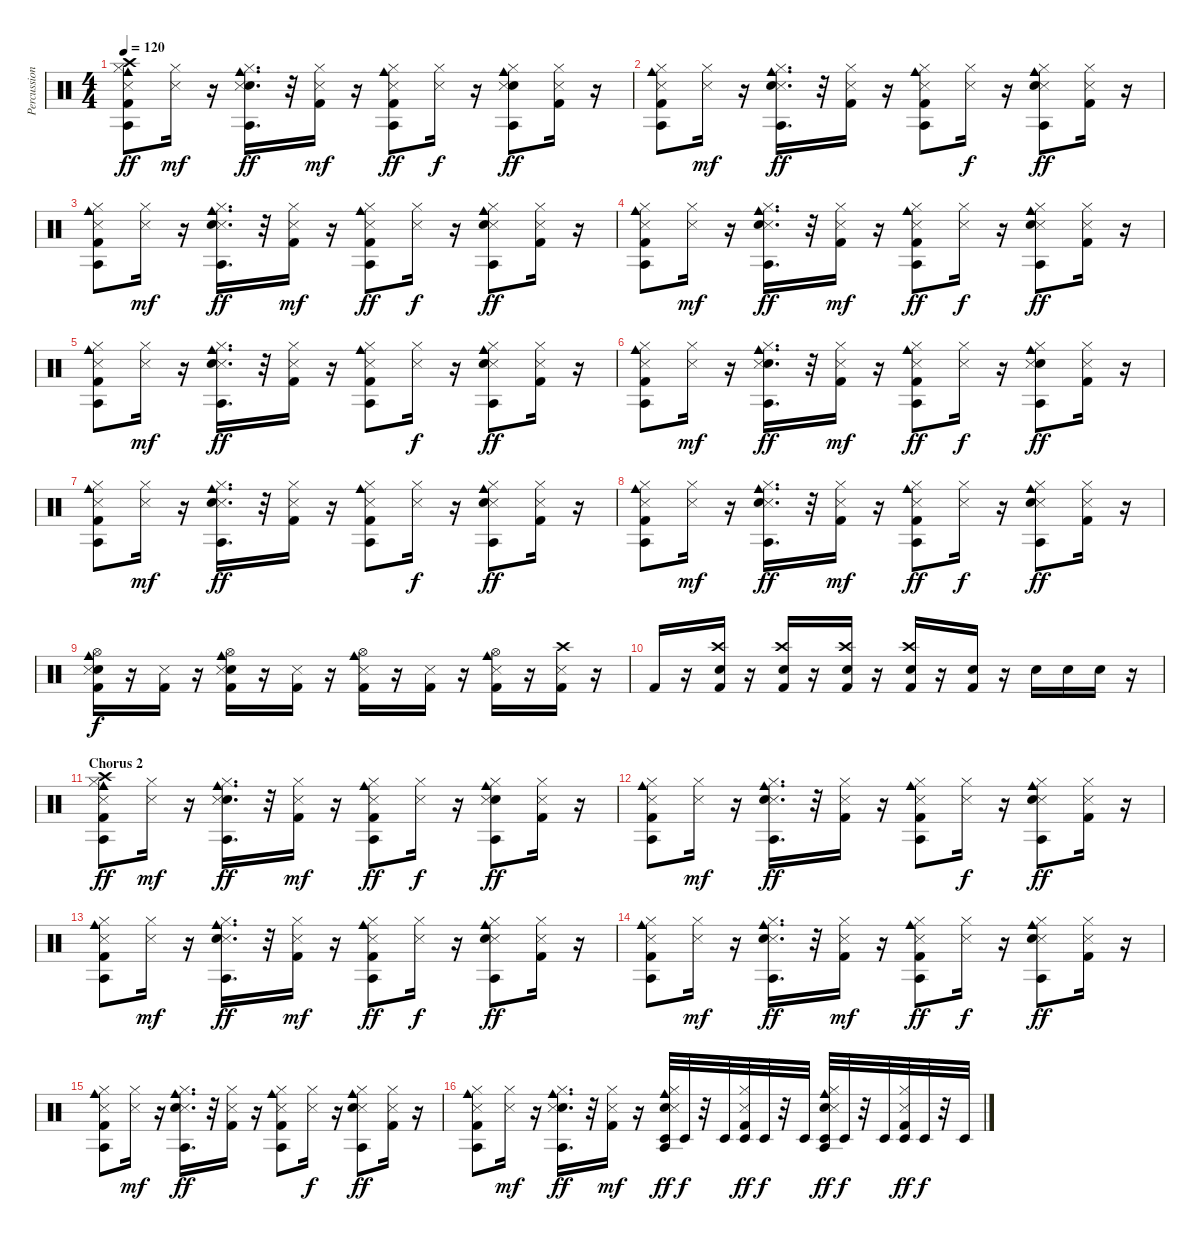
\track ("Percussion" "Percussion") {instrument percussion}
\staff {score}
\articulation defaults
\ts (4 4)
\tempo 120
\clef neutral
\ks c
("Kick (hit) 2" "Hi-Hat (closed)" "Agogo tow (hit)" "Crash high (hit)" "Cowbell medium (hit)" "Snare (side stick) 3").8{dy ff} ("Hi-Hat (closed)" "Snare (side stick) 3").16{dy mf} r.16 ("Snare (hit) 2" "Hi-Hat (closed)" "Agogo tow (hit)" "Cowbell medium (hit)" "Snare (side stick) 3").16{d dy ff} r.32 ("Kick (hit) 2" "Hi-Hat (closed)" "Snare (side stick) 3").16{dy mf} r.16 ("Kick (hit) 2" "Hi-Hat (closed)" "Agogo tow (hit)" "Cowbell medium (hit)" "Snare (side stick) 3").8{dy ff} ("Hi-Hat (closed)" "Snare (side stick) 3").16{dy f} r.16 ("Snare (hit) 2" "Hi-Hat (closed)" "Agogo tow (hit)" "Cowbell medium (hit)" "Snare (side stick) 3").8{dy ff} ("Kick (hit) 2" "Hi-Hat (closed)" "Snare (side stick) 3").16 r.16 |
("Cowbell medium (hit)" "Snare (side stick) 3" "Hi-Hat (closed)" "Agogo tow (hit)" "Kick (hit) 2").8 ("Snare (side stick) 3" "Hi-Hat (closed)").16{dy mf} r.16 ("Cowbell medium (hit)" "Snare (side stick) 3" "Hi-Hat (closed)" "Agogo tow (hit)" "Snare (hit) 2").16{d dy ff} r.32 ("Snare (side stick) 3" "Hi-Hat (closed)" "Kick (hit) 2").16 r.16 ("Cowbell medium (hit)" "Snare (side stick) 3" "Hi-Hat (closed)" "Agogo tow (hit)" "Kick (hit) 2").8 ("Snare (side stick) 3" "Hi-Hat (closed)").16{dy f} r.16 ("Cowbell medium (hit)" "Snare (side stick) 3" "Hi-Hat (closed)" "Agogo tow (hit)" "Snare (hit) 2").8{dy ff} ("Snare (side stick) 3" "Hi-Hat (closed)" "Kick (hit) 2").16 r.16 |
("Snare (side stick) 3" "Agogo tow (hit)" "Kick (hit) 2" "Cowbell medium (hit)" "Hi-Hat (closed)").8 ("Snare (side stick) 3" "Hi-Hat (closed)").16{dy mf} r.16 ("Snare (side stick) 3" "Agogo tow (hit)" "Snare (hit) 2" "Cowbell medium (hit)" "Hi-Hat (closed)").16{d dy ff} r.32 ("Snare (side stick) 3" "Kick (hit) 2" "Hi-Hat (closed)").16{dy mf} r.16 ("Snare (side stick) 3" "Agogo tow (hit)" "Kick (hit) 2" "Cowbell medium (hit)" "Hi-Hat (closed)").8{dy ff} ("Snare (side stick) 3" "Hi-Hat (closed)").16{dy f} r.16 ("Snare (side stick) 3" "Agogo tow (hit)" "Snare (hit) 2" "Cowbell medium (hit)" "Hi-Hat (closed)").8{dy ff} ("Snare (side stick) 3" "Kick (hit) 2" "Hi-Hat (closed)").16 r.16 |
("Cowbell medium (hit)" "Agogo tow (hit)" "Snare (side stick) 3" "Kick (hit) 2" "Hi-Hat (closed)").8 ("Snare (side stick) 3" "Hi-Hat (closed)").16{dy mf} r.16 ("Cowbell medium (hit)" "Agogo tow (hit)" "Snare (side stick) 3" "Snare (hit) 2" "Hi-Hat (closed)").16{d dy ff} r.32 ("Snare (side stick) 3" "Kick (hit) 2" "Hi-Hat (closed)").16{dy mf} r.16 ("Cowbell medium (hit)" "Agogo tow (hit)" "Snare (side stick) 3" "Kick (hit) 2" "Hi-Hat (closed)").8{dy ff} ("Snare (side stick) 3" "Hi-Hat (closed)").16{dy f} r.16 ("Cowbell medium (hit)" "Agogo tow (hit)" "Snare (side stick) 3" "Snare (hit) 2" "Hi-Hat (closed)").8{dy ff} ("Snare (side stick) 3" "Kick (hit) 2" "Hi-Hat (closed)").16 r.16 |
("Hi-Hat (closed)" "Cowbell medium (hit)" "Snare (side stick) 3" "Agogo tow (hit)" "Kick (hit) 2").8 ("Hi-Hat (closed)" "Snare (side stick) 3").16{dy mf} r.16 ("Hi-Hat (closed)" "Cowbell medium (hit)" "Snare (side stick) 3" "Agogo tow (hit)" "Snare (hit) 2").16{d dy ff} r.32 ("Hi-Hat (closed)" "Snare (side stick) 3" "Kick (hit) 2").16 r.16 ("Hi-Hat (closed)" "Cowbell medium (hit)" "Snare (side stick) 3" "Agogo tow (hit)" "Kick (hit) 2").8 ("Hi-Hat (closed)" "Snare (side stick) 3").16{dy f} r.16 ("Hi-Hat (closed)" "Cowbell medium (hit)" "Snare (side stick) 3" "Agogo tow (hit)" "Snare (hit) 2").8{dy ff} ("Hi-Hat (closed)" "Snare (side stick) 3" "Kick (hit) 2").16 r.16 |
("Kick (hit) 2" "Agogo tow (hit)" "Cowbell medium (hit)" "Snare (side stick) 3" "Hi-Hat (closed)").8 ("Snare (side stick) 3" "Hi-Hat (closed)").16{dy mf} r.16 ("Snare (hit) 2" "Agogo tow (hit)" "Cowbell medium (hit)" "Snare (side stick) 3" "Hi-Hat (closed)").16{d dy ff} r.32 ("Kick (hit) 2" "Snare (side stick) 3" "Hi-Hat (closed)").16{dy mf} r.16 ("Kick (hit) 2" "Agogo tow (hit)" "Cowbell medium (hit)" "Snare (side stick) 3" "Hi-Hat (closed)").8{dy ff} ("Snare (side stick) 3" "Hi-Hat (closed)").16{dy f} r.16 ("Snare (hit) 2" "Agogo tow (hit)" "Cowbell medium (hit)" "Snare (side stick) 3" "Hi-Hat (closed)").8{dy ff} ("Kick (hit) 2" "Snare (side stick) 3" "Hi-Hat (closed)").16 r.16 |
("Agogo tow (hit)" "Snare (side stick) 3" "Cowbell medium (hit)" "Hi-Hat (closed)" "Kick (hit) 2").8 ("Snare (side stick) 3" "Hi-Hat (closed)").16{dy mf} r.16 ("Agogo tow (hit)" "Snare (side stick) 3" "Cowbell medium (hit)" "Hi-Hat (closed)" "Snare (hit) 2").16{d dy ff} r.32 ("Snare (side stick) 3" "Hi-Hat (closed)" "Kick (hit) 2").16 r.16 ("Agogo tow (hit)" "Snare (side stick) 3" "Cowbell medium (hit)" "Hi-Hat (closed)" "Kick (hit) 2").8 ("Snare (side stick) 3" "Hi-Hat (closed)").16{dy f} r.16 ("Agogo tow (hit)" "Snare (side stick) 3" "Cowbell medium (hit)" "Hi-Hat (closed)" "Snare (hit) 2").8{dy ff} ("Snare (side stick) 3" "Hi-Hat (closed)" "Kick (hit) 2").16 r.16 |
("Cowbell medium (hit)" "Snare (side stick) 3" "Agogo tow (hit)" "Kick (hit) 2" "Hi-Hat (closed)").8 ("Snare (side stick) 3" "Hi-Hat (closed)").16{dy mf} r.16 ("Cowbell medium (hit)" "Snare (side stick) 3" "Agogo tow (hit)" "Snare (hit) 2" "Hi-Hat (closed)").16{d dy ff} r.32 ("Snare (side stick) 3" "Kick (hit) 2" "Hi-Hat (closed)").16{dy mf} r.16 ("Cowbell medium (hit)" "Snare (side stick) 3" "Agogo tow (hit)" "Kick (hit) 2" "Hi-Hat (closed)").8{dy ff} ("Snare (side stick) 3" "Hi-Hat (closed)").16{dy f} r.16 ("Cowbell medium (hit)" "Snare (side stick) 3" "Agogo tow (hit)" "Snare (hit) 2" "Hi-Hat (closed)").8{dy ff} ("Snare (side stick) 3" "Kick (hit) 2" "Hi-Hat (closed)").16 r.16 |
("Electric Snare (hit)" "Snare (side stick) 3" "Cowbell medium (hit)" "Hi-Hat (open)" "Kick (hit) 2").16{dy f} r.16 ("Snare (side stick) 3" "Kick (hit) 2").16 r.16 ("Electric Snare (hit)" "Snare (side stick) 3" "Cowbell medium (hit)" "Hi-Hat (open)" "Kick (hit) 2").16 r.16 ("Snare (side stick) 3" "Kick (hit) 2").16 r.16 ("Snare (side stick) 3" "Cowbell medium (hit)" "Hi-Hat (open)" "Kick (hit) 2").16 r.16 ("Snare (side stick) 3" "Kick (hit) 2").16 r.16 ("Snare (side stick) 3" "Cowbell medium (hit)" "Hi-Hat (open)" "Kick (hit) 2").16 r.16 ("Crash high (hit)" "Snare (side stick) 3" "Kick (hit) 2").16 r.16 |
"Kick (hit) 2".16 r.16 ("Crash high (hit)" "Snare (hit) 2" "Kick (hit) 2").16 r.16 ("Snare (hit) 2" "Crash high (hit)" "Kick (hit) 2").16 r.16 ("Snare (hit) 2" "Kick (hit) 2" "Crash high (hit)").16 r.16 ("Snare (hit) 2" "Crash high (hit)" "Kick (hit) 2").16 r.16 ("Snare (hit) 2" "Kick (hit) 2").16 r.16 "Snare (hit) 2".16 "Snare (hit) 2".16 "Snare (hit) 2".16 r.16 |
\section ("" "Chorus 2")
("Kick (hit) 2" "Hi-Hat (closed)" "Agogo tow (hit)" "Crash high (hit)" "Cowbell medium (hit)" "Snare (side stick) 3").8{dy ff} ("Hi-Hat (closed)" "Snare (side stick) 3").16{dy mf} r.16 ("Snare (hit) 2" "Hi-Hat (closed)" "Agogo tow (hit)" "Cowbell medium (hit)" "Snare (side stick) 3").16{d dy ff} r.32 ("Kick (hit) 2" "Hi-Hat (closed)" "Snare (side stick) 3").16{dy mf} r.16 ("Kick (hit) 2" "Hi-Hat (closed)" "Agogo tow (hit)" "Cowbell medium (hit)" "Snare (side stick) 3").8{dy ff} ("Hi-Hat (closed)" "Snare (side stick) 3").16{dy f} r.16 ("Snare (hit) 2" "Hi-Hat (closed)" "Agogo tow (hit)" "Cowbell medium (hit)" "Snare (side stick) 3").8{dy ff} ("Kick (hit) 2" "Hi-Hat (closed)" "Snare (side stick) 3").16 r.16 |
("Cowbell medium (hit)" "Snare (side stick) 3" "Hi-Hat (closed)" "Agogo tow (hit)" "Kick (hit) 2").8 ("Snare (side stick) 3" "Hi-Hat (closed)").16{dy mf} r.16 ("Cowbell medium (hit)" "Snare (side stick) 3" "Hi-Hat (closed)" "Agogo tow (hit)" "Snare (hit) 2").16{d dy ff} r.32 ("Snare (side stick) 3" "Hi-Hat (closed)" "Kick (hit) 2").16 r.16 ("Cowbell medium (hit)" "Snare (side stick) 3" "Hi-Hat (closed)" "Agogo tow (hit)" "Kick (hit) 2").8 ("Snare (side stick) 3" "Hi-Hat (closed)").16{dy f} r.16 ("Cowbell medium (hit)" "Snare (side stick) 3" "Hi-Hat (closed)" "Agogo tow (hit)" "Snare (hit) 2").8{dy ff} ("Snare (side stick) 3" "Hi-Hat (closed)" "Kick (hit) 2").16 r.16 |
("Snare (side stick) 3" "Agogo tow (hit)" "Kick (hit) 2" "Cowbell medium (hit)" "Hi-Hat (closed)").8 ("Snare (side stick) 3" "Hi-Hat (closed)").16{dy mf} r.16 ("Snare (side stick) 3" "Agogo tow (hit)" "Snare (hit) 2" "Cowbell medium (hit)" "Hi-Hat (closed)").16{d dy ff} r.32 ("Snare (side stick) 3" "Kick (hit) 2" "Hi-Hat (closed)").16{dy mf} r.16 ("Snare (side stick) 3" "Agogo tow (hit)" "Kick (hit) 2" "Cowbell medium (hit)" "Hi-Hat (closed)").8{dy ff} ("Snare (side stick) 3" "Hi-Hat (closed)").16{dy f} r.16 ("Snare (side stick) 3" "Agogo tow (hit)" "Snare (hit) 2" "Cowbell medium (hit)" "Hi-Hat (closed)").8{dy ff} ("Snare (side stick) 3" "Kick (hit) 2" "Hi-Hat (closed)").16 r.16 |
("Cowbell medium (hit)" "Agogo tow (hit)" "Snare (side stick) 3" "Kick (hit) 2" "Hi-Hat (closed)").8 ("Snare (side stick) 3" "Hi-Hat (closed)").16{dy mf} r.16 ("Cowbell medium (hit)" "Agogo tow (hit)" "Snare (side stick) 3" "Snare (hit) 2" "Hi-Hat (closed)").16{d dy ff} r.32 ("Snare (side stick) 3" "Kick (hit) 2" "Hi-Hat (closed)").16{dy mf} r.16 ("Cowbell medium (hit)" "Agogo tow (hit)" "Snare (side stick) 3" "Kick (hit) 2" "Hi-Hat (closed)").8{dy ff} ("Snare (side stick) 3" "Hi-Hat (closed)").16{dy f} r.16 ("Cowbell medium (hit)" "Agogo tow (hit)" "Snare (side stick) 3" "Snare (hit) 2" "Hi-Hat (closed)").8{dy ff} ("Snare (side stick) 3" "Kick (hit) 2" "Hi-Hat (closed)").16 r.16 |
("Hi-Hat (closed)" "Cowbell medium (hit)" "Snare (side stick) 3" "Agogo tow (hit)" "Kick (hit) 2").8 ("Hi-Hat (closed)" "Snare (side stick) 3").16{dy mf} r.16 ("Hi-Hat (closed)" "Cowbell medium (hit)" "Snare (side stick) 3" "Agogo tow (hit)" "Snare (hit) 2").16{d dy ff} r.32 ("Hi-Hat (closed)" "Snare (side stick) 3" "Kick (hit) 2").16 r.16 ("Hi-Hat (closed)" "Cowbell medium (hit)" "Snare (side stick) 3" "Agogo tow (hit)" "Kick (hit) 2").8 ("Hi-Hat (closed)" "Snare (side stick) 3").16{dy f} r.16 ("Hi-Hat (closed)" "Cowbell medium (hit)" "Snare (side stick) 3" "Agogo tow (hit)" "Snare (hit) 2").8{dy ff} ("Hi-Hat (closed)" "Snare (side stick) 3" "Kick (hit) 2").16 r.16 |
("Kick (hit) 2" "Agogo tow (hit)" "Cowbell medium (hit)" "Snare (side stick) 3" "Hi-Hat (closed)").8 ("Snare (side stick) 3" "Hi-Hat (closed)").16{dy mf} r.16 ("Snare (hit) 2" "Agogo tow (hit)" "Cowbell medium (hit)" "Snare (side stick) 3" "Hi-Hat (closed)").16{d dy ff} r.32 ("Kick (hit) 2" "Snare (side stick) 3" "Hi-Hat (closed)").16{dy mf} r.16 ("Snare (hit) 2" "Timbale low (hit)" "Agogo tow (hit)" "Cowbell medium (hit)" "Snare (side stick) 3" "Hi-Hat (closed)").32{dy ff} "Timbale low (hit)".32{dy f} r.32 "Timbale low (hit)".32 ("Timbale low (hit)" "Snare (side stick) 3" "Hi-Hat (closed)" "Kick (hit) 2").32{dy ff} "Timbale low (hit)".32{dy f} r.32 "Timbale low (hit)".32 ("Snare (hit) 2" "Agogo tow (hit)" "Cowbell medium (hit)" "Snare (side stick) 3" "Hi-Hat (closed)" "Timbale low (hit)").32{dy ff} "Timbale low (hit)".32{dy f} r.32 "Timbale low (hit)".32 ("Timbale low (hit)" "Kick (hit) 2" "Snare (side stick) 3" "Hi-Hat (closed)").32{dy ff} "Timbale low (hit)".32{dy f} r.32 "Timbale low (hit)".32
